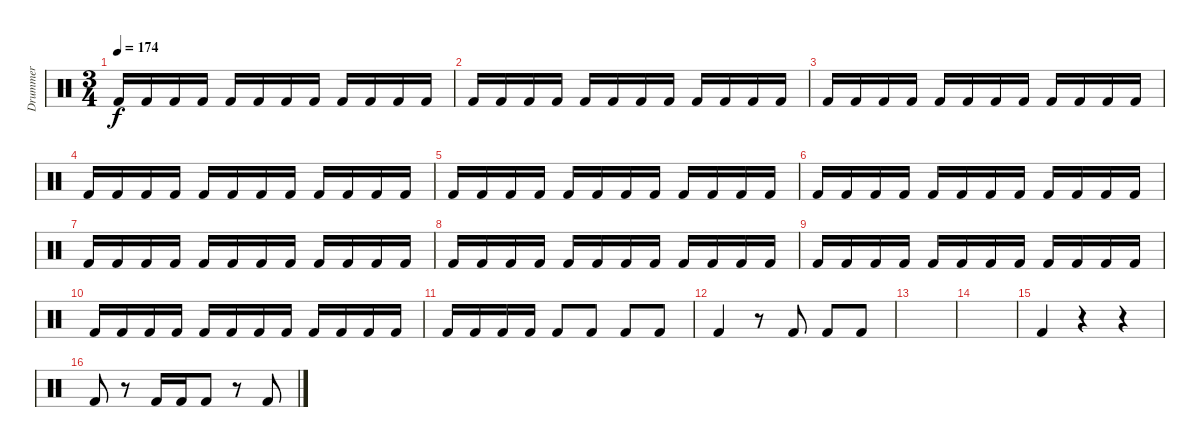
\track ("Drummer" "Drummer") {instrument percussion}
\staff {score}
\articulation defaults
\ts (3 4)
\tempo 174
\clef neutral
\ks c "Kick (hit) 2".16{dy f} "Kick (hit) 2".16 "Kick (hit) 2".16 "Kick (hit) 2".16 "Kick (hit) 2".16 "Kick (hit) 2".16 "Kick (hit) 2".16 "Kick (hit) 2".16 "Kick (hit) 2".16 "Kick (hit) 2".16 "Kick (hit) 2".16 "Kick (hit) 2".16
|
"Kick (hit) 2".16 "Kick (hit) 2".16 "Kick (hit) 2".16 "Kick (hit) 2".16 "Kick (hit) 2".16 "Kick (hit) 2".16 "Kick (hit) 2".16 "Kick (hit) 2".16 "Kick (hit) 2".16 "Kick (hit) 2".16 "Kick (hit) 2".16 "Kick (hit) 2".16 |
"Kick (hit) 2".16 "Kick (hit) 2".16 "Kick (hit) 2".16 "Kick (hit) 2".16 "Kick (hit) 2".16 "Kick (hit) 2".16 "Kick (hit) 2".16 "Kick (hit) 2".16 "Kick (hit) 2".16 "Kick (hit) 2".16 "Kick (hit) 2".16 "Kick (hit) 2".16 |
"Kick (hit) 2".16 "Kick (hit) 2".16 "Kick (hit) 2".16 "Kick (hit) 2".16 "Kick (hit) 2".16 "Kick (hit) 2".16 "Kick (hit) 2".16 "Kick (hit) 2".16 "Kick (hit) 2".16 "Kick (hit) 2".16 "Kick (hit) 2".16 "Kick (hit) 2".16 |
"Kick (hit) 2".16 "Kick (hit) 2".16 "Kick (hit) 2".16 "Kick (hit) 2".16 "Kick (hit) 2".16 "Kick (hit) 2".16 "Kick (hit) 2".16 "Kick (hit) 2".16 "Kick (hit) 2".16 "Kick (hit) 2".16 "Kick (hit) 2".16 "Kick (hit) 2".16 |
"Kick (hit) 2".16 "Kick (hit) 2".16 "Kick (hit) 2".16 "Kick (hit) 2".16 "Kick (hit) 2".16 "Kick (hit) 2".16 "Kick (hit) 2".16 "Kick (hit) 2".16 "Kick (hit) 2".16 "Kick (hit) 2".16 "Kick (hit) 2".16 "Kick (hit) 2".16 |
"Kick (hit) 2".16 "Kick (hit) 2".16 "Kick (hit) 2".16 "Kick (hit) 2".16 "Kick (hit) 2".16 "Kick (hit) 2".16 "Kick (hit) 2".16 "Kick (hit) 2".16 "Kick (hit) 2".16 "Kick (hit) 2".16 "Kick (hit) 2".16 "Kick (hit) 2".16 |
"Kick (hit) 2".16 "Kick (hit) 2".16 "Kick (hit) 2".16 "Kick (hit) 2".16 "Kick (hit) 2".16 "Kick (hit) 2".16 "Kick (hit) 2".16 "Kick (hit) 2".16 "Kick (hit) 2".16 "Kick (hit) 2".16 "Kick (hit) 2".16 "Kick (hit) 2".16 |
"Kick (hit) 2".16 "Kick (hit) 2".16 "Kick (hit) 2".16 "Kick (hit) 2".16 "Kick (hit) 2".16 "Kick (hit) 2".16 "Kick (hit) 2".16 "Kick (hit) 2".16 "Kick (hit) 2".16 "Kick (hit) 2".16 "Kick (hit) 2".16 "Kick (hit) 2".16 |
"Kick (hit) 2".16 "Kick (hit) 2".16 "Kick (hit) 2".16 "Kick (hit) 2".16 "Kick (hit) 2".16 "Kick (hit) 2".16 "Kick (hit) 2".16 "Kick (hit) 2".16 "Kick (hit) 2".16 "Kick (hit) 2".16 "Kick (hit) 2".16 "Kick (hit) 2".16 |
"Kick (hit) 2".16 "Kick (hit) 2".16 "Kick (hit) 2".16 "Kick (hit) 2".16 "Kick (hit) 2".8 "Kick (hit) 2".8 "Kick (hit) 2".8 "Kick (hit) 2".8 |
"Kick (hit) 2".4 r.8 "Kick (hit) 2".8 "Kick (hit) 2".8 "Kick (hit) 2".8 |
|
|
"Kick (hit) 2".4 r.4 r.4 |
"Kick (hit) 2".8 r.8 "Kick (hit) 2".16 "Kick (hit) 2".16 "Kick (hit) 2".8 r.8 "Kick (hit) 2".8
